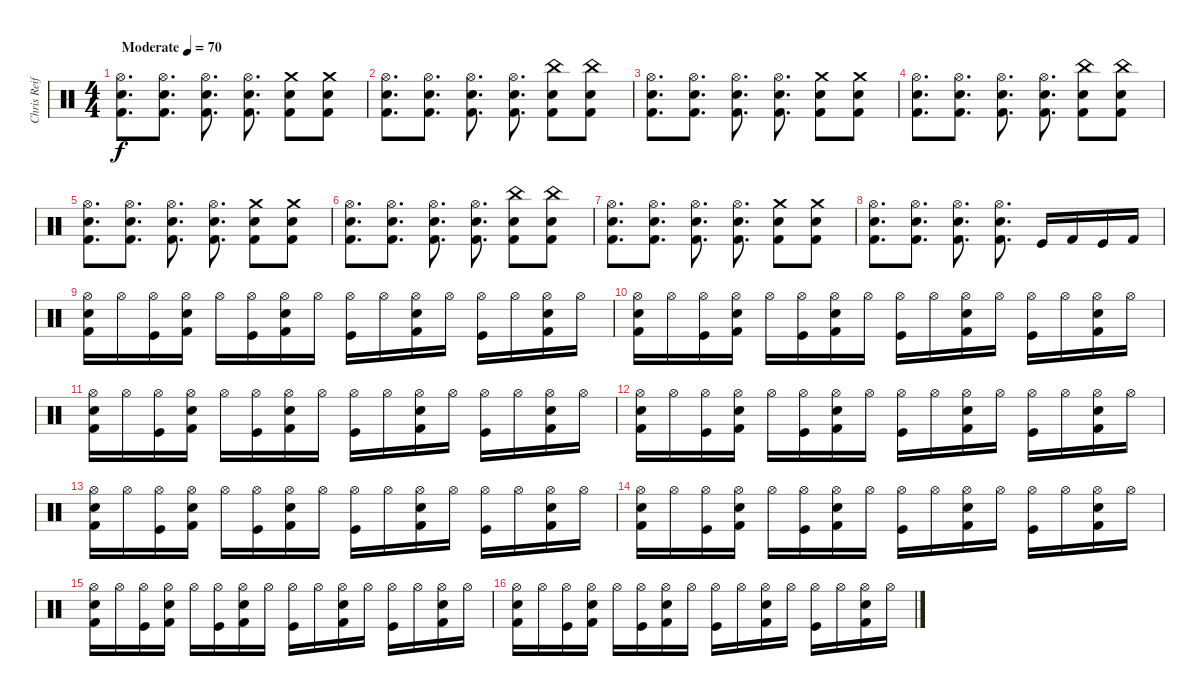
\track ("Chris Reifert" "Chris Reif") {instrument percussion}
\staff {score}
\articulation defaults
\ts (4 4)
\tempo (70 "Moderate")
\clef neutral
\ks c
("Hi-Hat (open)" "Snare (hit) 2" "Kick (hit) 2").8{d dy f} ("Hi-Hat (open)" "Snare (hit) 2" "Kick (hit) 2").8{d} ("Hi-Hat (open)" "Snare (hit) 2" "Kick (hit) 2").8{d} ("Hi-Hat (open)" "Snare (hit) 2" "Kick (hit) 2").8{d} ("Crash medium (hit)" "Snare (hit) 2" "Kick (hit) 2").8 ("Crash medium (hit)" "Snare (hit) 2" "Kick (hit) 2").8 |
("Hi-Hat (open)" "Snare (hit) 2" "Kick (hit) 2").8{d} ("Hi-Hat (open)" "Snare (hit) 2" "Kick (hit) 2").8{d} ("Hi-Hat (open)" "Snare (hit) 2" "Kick (hit) 2").8{d} ("Hi-Hat (open)" "Snare (hit) 2" "Kick (hit) 2").8{d} ("China (hit)" "Snare (hit) 2" "Kick (hit) 2").8 ("China (hit)" "Snare (hit) 2" "Kick (hit) 2").8 |
("Hi-Hat (open)" "Snare (hit) 2" "Kick (hit) 2").8{d} ("Hi-Hat (open)" "Snare (hit) 2" "Kick (hit) 2").8{d} ("Hi-Hat (open)" "Snare (hit) 2" "Kick (hit) 2").8{d} ("Hi-Hat (open)" "Snare (hit) 2" "Kick (hit) 2").8{d} ("Crash medium (hit)" "Snare (hit) 2" "Kick (hit) 2").8 ("Crash medium (hit)" "Snare (hit) 2" "Kick (hit) 2").8 |
("Hi-Hat (open)" "Snare (hit) 2" "Kick (hit) 2").8{d} ("Hi-Hat (open)" "Snare (hit) 2" "Kick (hit) 2").8{d} ("Hi-Hat (open)" "Snare (hit) 2" "Kick (hit) 2").8{d} ("Hi-Hat (open)" "Snare (hit) 2" "Kick (hit) 2").8{d} ("China (hit)" "Snare (hit) 2" "Kick (hit) 2").8 ("China (hit)" "Snare (hit) 2" "Kick (hit) 2").8 |
("Hi-Hat (open)" "Snare (hit) 2" "Kick (hit) 2").8{d} ("Hi-Hat (open)" "Snare (hit) 2" "Kick (hit) 2").8{d} ("Hi-Hat (open)" "Snare (hit) 2" "Kick (hit) 2").8{d} ("Hi-Hat (open)" "Snare (hit) 2" "Kick (hit) 2").8{d} ("Crash medium (hit)" "Snare (hit) 2" "Kick (hit) 2").8 ("Crash medium (hit)" "Snare (hit) 2" "Kick (hit) 2").8 |
("Hi-Hat (open)" "Snare (hit) 2" "Kick (hit) 2").8{d} ("Hi-Hat (open)" "Snare (hit) 2" "Kick (hit) 2").8{d} ("Hi-Hat (open)" "Snare (hit) 2" "Kick (hit) 2").8{d} ("Hi-Hat (open)" "Snare (hit) 2" "Kick (hit) 2").8{d} ("China (hit)" "Snare (hit) 2" "Kick (hit) 2").8 ("China (hit)" "Snare (hit) 2" "Kick (hit) 2").8 |
("Hi-Hat (open)" "Snare (hit) 2" "Kick (hit) 2").8{d} ("Hi-Hat (open)" "Snare (hit) 2" "Kick (hit) 2").8{d} ("Hi-Hat (open)" "Snare (hit) 2" "Kick (hit) 2").8{d} ("Hi-Hat (open)" "Snare (hit) 2" "Kick (hit) 2").8{d} ("Crash medium (hit)" "Snare (hit) 2" "Kick (hit) 2").8 ("Crash medium (hit)" "Snare (hit) 2" "Kick (hit) 2").8 |
("Hi-Hat (open)" "Snare (hit) 2" "Kick (hit) 2").8{d} ("Hi-Hat (open)" "Snare (hit) 2" "Kick (hit) 2").8{d} ("Hi-Hat (open)" "Snare (hit) 2" "Kick (hit) 2").8{d} ("Hi-Hat (open)" "Snare (hit) 2" "Kick (hit) 2").8{d} "Kick (hit)".16 "Kick (hit) 2".16 "Kick (hit)".16 "Kick (hit) 2".16 |
("Hi-Hat (open)" "Snare (hit) 2" "Kick (hit) 2").16 "Hi-Hat (open)".16 ("Hi-Hat (open)" "Kick (hit)").16 ("Hi-Hat (open)" "Snare (hit) 2" "Kick (hit) 2").16 "Hi-Hat (open)".16 ("Hi-Hat (open)" "Kick (hit)").16 ("Hi-Hat (open)" "Snare (hit) 2" "Kick (hit) 2").16 "Hi-Hat (open)".16 ("Hi-Hat (open)" "Kick (hit)").16 "Hi-Hat (open)".16 ("Hi-Hat (open)" "Snare (hit) 2" "Kick (hit) 2").16 "Hi-Hat (open)".16 ("Hi-Hat (open)" "Kick (hit)").16 "Hi-Hat (open)".16 ("Hi-Hat (open)" "Snare (hit) 2" "Kick (hit) 2").16 "Hi-Hat (open)".16 |
("Hi-Hat (open)" "Snare (hit) 2" "Kick (hit) 2").16 "Hi-Hat (open)".16 ("Hi-Hat (open)" "Kick (hit)").16 ("Hi-Hat (open)" "Snare (hit) 2" "Kick (hit) 2").16 "Hi-Hat (open)".16 ("Hi-Hat (open)" "Kick (hit)").16 ("Hi-Hat (open)" "Snare (hit) 2" "Kick (hit) 2").16 "Hi-Hat (open)".16 ("Hi-Hat (open)" "Kick (hit)").16 "Hi-Hat (open)".16 ("Hi-Hat (open)" "Snare (hit) 2" "Kick (hit) 2").16 "Hi-Hat (open)".16 ("Hi-Hat (open)" "Kick (hit)").16 "Hi-Hat (open)".16 ("Hi-Hat (open)" "Snare (hit) 2" "Kick (hit) 2").16 "Hi-Hat (open)".16 |
("Hi-Hat (open)" "Snare (hit) 2" "Kick (hit) 2").16 "Hi-Hat (open)".16 ("Hi-Hat (open)" "Kick (hit)").16 ("Hi-Hat (open)" "Snare (hit) 2" "Kick (hit) 2").16 "Hi-Hat (open)".16 ("Hi-Hat (open)" "Kick (hit)").16 ("Hi-Hat (open)" "Snare (hit) 2" "Kick (hit) 2").16 "Hi-Hat (open)".16 ("Hi-Hat (open)" "Kick (hit)").16 "Hi-Hat (open)".16 ("Hi-Hat (open)" "Snare (hit) 2" "Kick (hit) 2").16 "Hi-Hat (open)".16 ("Hi-Hat (open)" "Kick (hit)").16 "Hi-Hat (open)".16 ("Hi-Hat (open)" "Snare (hit) 2" "Kick (hit) 2").16 "Hi-Hat (open)".16 |
("Hi-Hat (open)" "Snare (hit) 2" "Kick (hit) 2").16 "Hi-Hat (open)".16 ("Hi-Hat (open)" "Kick (hit)").16 ("Hi-Hat (open)" "Snare (hit) 2" "Kick (hit) 2").16 "Hi-Hat (open)".16 ("Hi-Hat (open)" "Kick (hit)").16 ("Hi-Hat (open)" "Snare (hit) 2" "Kick (hit) 2").16 "Hi-Hat (open)".16 ("Hi-Hat (open)" "Kick (hit)").16 "Hi-Hat (open)".16 ("Hi-Hat (open)" "Snare (hit) 2" "Kick (hit) 2").16 "Hi-Hat (open)".16 ("Hi-Hat (open)" "Kick (hit)").16 "Hi-Hat (open)".16 ("Hi-Hat (open)" "Snare (hit) 2" "Kick (hit) 2").16 "Hi-Hat (open)".16 |
("Hi-Hat (open)" "Snare (hit) 2" "Kick (hit) 2").16 "Hi-Hat (open)".16 ("Hi-Hat (open)" "Kick (hit)").16 ("Hi-Hat (open)" "Snare (hit) 2" "Kick (hit) 2").16 "Hi-Hat (open)".16 ("Hi-Hat (open)" "Kick (hit)").16 ("Hi-Hat (open)" "Snare (hit) 2" "Kick (hit) 2").16 "Hi-Hat (open)".16 ("Hi-Hat (open)" "Kick (hit)").16 "Hi-Hat (open)".16 ("Hi-Hat (open)" "Snare (hit) 2" "Kick (hit) 2").16 "Hi-Hat (open)".16 ("Hi-Hat (open)" "Kick (hit)").16 "Hi-Hat (open)".16 ("Hi-Hat (open)" "Snare (hit) 2" "Kick (hit) 2").16 "Hi-Hat (open)".16 |
("Hi-Hat (open)" "Snare (hit) 2" "Kick (hit) 2").16 "Hi-Hat (open)".16 ("Hi-Hat (open)" "Kick (hit)").16 ("Hi-Hat (open)" "Snare (hit) 2" "Kick (hit) 2").16 "Hi-Hat (open)".16 ("Hi-Hat (open)" "Kick (hit)").16 ("Hi-Hat (open)" "Snare (hit) 2" "Kick (hit) 2").16 "Hi-Hat (open)".16 ("Hi-Hat (open)" "Kick (hit)").16 "Hi-Hat (open)".16 ("Hi-Hat (open)" "Snare (hit) 2" "Kick (hit) 2").16 "Hi-Hat (open)".16 ("Hi-Hat (open)" "Kick (hit)").16 "Hi-Hat (open)".16 ("Hi-Hat (open)" "Snare (hit) 2" "Kick (hit) 2").16 "Hi-Hat (open)".16 |
("Hi-Hat (open)" "Snare (hit) 2" "Kick (hit) 2").16 "Hi-Hat (open)".16 ("Hi-Hat (open)" "Kick (hit)").16 ("Hi-Hat (open)" "Snare (hit) 2" "Kick (hit) 2").16 "Hi-Hat (open)".16 ("Hi-Hat (open)" "Kick (hit)").16 ("Hi-Hat (open)" "Snare (hit) 2" "Kick (hit) 2").16 "Hi-Hat (open)".16 ("Hi-Hat (open)" "Kick (hit)").16 "Hi-Hat (open)".16 ("Hi-Hat (open)" "Snare (hit) 2" "Kick (hit) 2").16 "Hi-Hat (open)".16 ("Hi-Hat (open)" "Kick (hit)").16 "Hi-Hat (open)".16 ("Hi-Hat (open)" "Snare (hit) 2" "Kick (hit) 2").16 "Hi-Hat (open)".16 |
("Hi-Hat (open)" "Snare (hit) 2" "Kick (hit) 2").16 "Hi-Hat (open)".16 ("Hi-Hat (open)" "Kick (hit)").16 ("Hi-Hat (open)" "Snare (hit) 2" "Kick (hit) 2").16 "Hi-Hat (open)".16 ("Hi-Hat (open)" "Kick (hit)").16 ("Hi-Hat (open)" "Snare (hit) 2" "Kick (hit) 2").16 "Hi-Hat (open)".16 ("Hi-Hat (open)" "Kick (hit)").16 "Hi-Hat (open)".16 ("Hi-Hat (open)" "Snare (hit) 2" "Kick (hit) 2").16 "Hi-Hat (open)".16 ("Hi-Hat (open)" "Kick (hit)").16 "Hi-Hat (open)".16 ("Hi-Hat (open)" "Snare (hit) 2" "Kick (hit) 2").16 "Hi-Hat (open)".16
